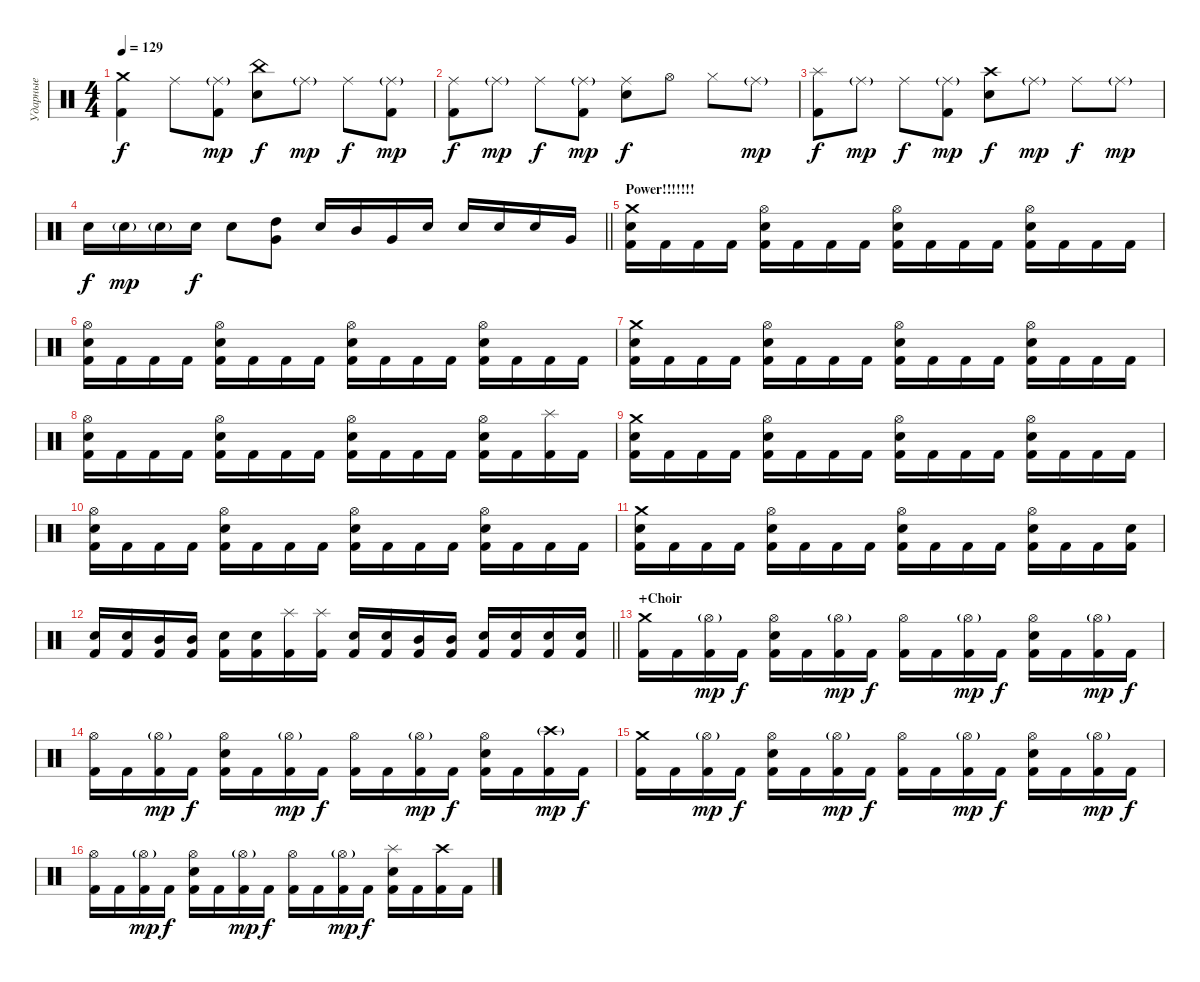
\track ("Ударные" "Ударные") {instrument percussion}
\staff
\articulation defaults
\ts (4 4)
\tempo 129
\clef neutral
\ks c
("Crash medium (hit)" "Kick (hit) 2").4{dy f} "Ride (middle)".8 ("Ride (middle)"{g} "Kick (hit) 2").8{dy mp} ("China (hit)" "Snare (hit) 2").8{dy f} "Ride (middle)"{g}.8{dy mp} "Ride (middle)".8{dy f} ("Ride (middle)"{g} "Kick (hit) 2").8{dy mp} |
("Ride (middle)" "Kick (hit) 2").8{dy f} "Ride (middle)"{g}.8{dy mp} "Ride (middle)".8{dy f} ("Ride (middle)"{g} "Kick (hit) 2").8{dy mp} ("Ride (middle)" "Snare (hit) 2").8{dy f} "Hi-Hat (open)".8 "Hi-Hat (closed)".8 "Ride (middle)"{g}.8{dy mp} |
("Splash (hit)" "Kick (hit) 2").8{dy f} "Ride (middle)"{g}.8{dy mp} "Ride (middle)".8{dy f} ("Ride (middle)"{g} "Kick (hit) 2").8{dy mp} ("Crash high (hit)" "Snare (hit) 2").8{dy f} "Ride (middle)"{g}.8{dy mp} "Ride (middle)".8{dy f} "Ride (middle)"{g}.8{dy mp} |
\barLineRight lightlight "Snare (hit) 2".16{dy f} "Snare (hit) 2"{g}.16{dy mp} "Snare (hit) 2"{g}.16 "Snare (hit) 2".16{dy f} "Snare (hit) 2".8
("High Tom (hit)" "Very Low Tom (hit)").8 "Snare (hit) 2".16 "Mid Tom (hit)".16 "Very Low Tom (hit)".16 "Snare (hit) 2".16 "Snare (hit) 2".16 "Snare (hit) 2".16 "Snare (hit) 2".16 "Very Low Tom (hit)".16 |
\section ("" "Power!!!!!!!")
("Crash medium (hit)" "Snare (hit) 2" "Kick (hit) 2").16 "Kick (hit) 2".16 "Kick (hit) 2".16 "Kick (hit) 2".16 ("Hi-Hat (open)" "Snare (hit) 2" "Kick (hit) 2").16 "Kick (hit) 2".16 "Kick (hit) 2".16 "Kick (hit) 2".16 ("Hi-Hat (open)" "Snare (hit) 2" "Kick (hit) 2").16 "Kick (hit) 2".16 "Kick (hit) 2".16 "Kick (hit) 2".16 ("Hi-Hat (open)" "Snare (hit) 2" "Kick (hit) 2").16 "Kick (hit) 2".16 "Kick (hit) 2".16 "Kick (hit) 2".16 |
("Hi-Hat (open)" "Snare (hit) 2" "Kick (hit) 2").16 "Kick (hit) 2".16 "Kick (hit) 2".16 "Kick (hit) 2".16 ("Hi-Hat (open)" "Snare (hit) 2" "Kick (hit) 2").16 "Kick (hit) 2".16 "Kick (hit) 2".16 "Kick (hit) 2".16 ("Hi-Hat (open)" "Snare (hit) 2" "Kick (hit) 2").16 "Kick (hit) 2".16 "Kick (hit) 2".16 "Kick (hit) 2".16 ("Hi-Hat (open)" "Snare (hit) 2" "Kick (hit) 2").16 "Kick (hit) 2".16 "Kick (hit) 2".16 "Kick (hit) 2".16 |
("Crash medium (hit)" "Snare (hit) 2" "Kick (hit) 2").16 "Kick (hit) 2".16 "Kick (hit) 2".16 "Kick (hit) 2".16 ("Hi-Hat (open)" "Snare (hit) 2" "Kick (hit) 2").16 "Kick (hit) 2".16 "Kick (hit) 2".16 "Kick (hit) 2".16 ("Hi-Hat (open)" "Snare (hit) 2" "Kick (hit) 2").16 "Kick (hit) 2".16 "Kick (hit) 2".16 "Kick (hit) 2".16 ("Hi-Hat (open)" "Snare (hit) 2" "Kick (hit) 2").16 "Kick (hit) 2".16 "Kick (hit) 2".16 "Kick (hit) 2".16 |
("Hi-Hat (open)" "Snare (hit) 2" "Kick (hit) 2").16 "Kick (hit) 2".16 "Kick (hit) 2".16 "Kick (hit) 2".16 ("Hi-Hat (open)" "Snare (hit) 2" "Kick (hit) 2").16 "Kick (hit) 2".16 "Kick (hit) 2".16 "Kick (hit) 2".16 ("Hi-Hat (open)" "Snare (hit) 2" "Kick (hit) 2").16 "Kick (hit) 2".16 "Kick (hit) 2".16 "Kick (hit) 2".16 ("Hi-Hat (open)" "Snare (hit) 2" "Kick (hit) 2").16 "Kick (hit) 2".16 ("Splash (hit)" "Kick (hit) 2").16 "Kick (hit) 2".16 |
("Crash medium (hit)" "Snare (hit) 2" "Kick (hit) 2").16 "Kick (hit) 2".16 "Kick (hit) 2".16 "Kick (hit) 2".16 ("Hi-Hat (open)" "Snare (hit) 2" "Kick (hit) 2").16 "Kick (hit) 2".16 "Kick (hit) 2".16 "Kick (hit) 2".16 ("Hi-Hat (open)" "Snare (hit) 2" "Kick (hit) 2").16 "Kick (hit) 2".16 "Kick (hit) 2".16 "Kick (hit) 2".16 ("Hi-Hat (open)" "Snare (hit) 2" "Kick (hit) 2").16 "Kick (hit) 2".16 "Kick (hit) 2".16 "Kick (hit) 2".16 |
("Hi-Hat (open)" "Snare (hit) 2" "Kick (hit) 2").16 "Kick (hit) 2".16 "Kick (hit) 2".16 "Kick (hit) 2".16 ("Hi-Hat (open)" "Snare (hit) 2" "Kick (hit) 2").16 "Kick (hit) 2".16 "Kick (hit) 2".16 "Kick (hit) 2".16 ("Hi-Hat (open)" "Snare (hit) 2" "Kick (hit) 2").16 "Kick (hit) 2".16 "Kick (hit) 2".16 "Kick (hit) 2".16 ("Hi-Hat (open)" "Snare (hit) 2" "Kick (hit) 2").16 "Kick (hit) 2".16 "Kick (hit) 2".16 "Kick (hit) 2".16 |
("Crash medium (hit)" "Snare (hit) 2" "Kick (hit) 2").16 "Kick (hit) 2".16 "Kick (hit) 2".16 "Kick (hit) 2".16 ("Hi-Hat (open)" "Snare (hit) 2" "Kick (hit) 2").16 "Kick (hit) 2".16 "Kick (hit) 2".16 "Kick (hit) 2".16 ("Hi-Hat (open)" "Snare (hit) 2" "Kick (hit) 2").16 "Kick (hit) 2".16 "Kick (hit) 2".16 "Kick (hit) 2".16 ("Hi-Hat (open)" "Snare (hit) 2" "Kick (hit) 2").16 "Kick (hit) 2".16 "Kick (hit) 2".16 ("Snare (hit) 2" "Kick (hit) 2").16 |
\barLineRight lightlight
("Snare (hit) 2" "Kick (hit) 2").16 ("Snare (hit) 2" "Kick (hit) 2").16 ("Mid Tom (hit)" "Kick (hit) 2").16 ("Mid Tom (hit)" "Kick (hit) 2").16 ("Snare (hit) 2" "Kick (hit) 2").16 ("Snare (hit) 2" "Kick (hit) 2").16 ("Splash (hit)" "Kick (hit) 2").16 ("Splash (hit)" "Kick (hit) 2").16 ("Snare (hit) 2" "Kick (hit) 2").16 ("Snare (hit) 2" "Kick (hit) 2").16 ("Mid Tom (hit)" "Kick (hit) 2").16 ("Mid Tom (hit)" "Kick (hit) 2").16 ("Snare (hit) 2" "Kick (hit) 2").16 ("Snare (hit) 2" "Kick (hit) 2").16 ("Snare (hit) 2" "Kick (hit) 2").16 ("Snare (hit) 2" "Kick (hit) 2").16 |
\section ("" "+Choir")
("Crash medium (hit)" "Kick (hit) 2").16 "Kick (hit) 2".16 ("Hi-Hat (open)"{g} "Kick (hit) 2").16{dy mp} "Kick (hit) 2".16{dy f} ("Hi-Hat (open)" "Snare (hit) 2" "Kick (hit) 2").16 "Kick (hit) 2".16 ("Hi-Hat (open)"{g} "Kick (hit) 2").16{dy mp} "Kick (hit) 2".16{dy f} ("Hi-Hat (open)" "Kick (hit) 2").16 "Kick (hit) 2".16 ("Hi-Hat (open)"{g} "Kick (hit) 2").16{dy mp} "Kick (hit) 2".16{dy f} ("Hi-Hat (open)" "Snare (hit) 2" "Kick (hit) 2").16 "Kick (hit) 2".16 ("Hi-Hat (open)"{g} "Kick (hit) 2").16{dy mp} "Kick (hit) 2".16{dy f} |
("Hi-Hat (open)" "Kick (hit) 2").16 "Kick (hit) 2".16 ("Hi-Hat (open)"{g} "Kick (hit) 2").16{dy mp} "Kick (hit) 2".16{dy f} ("Hi-Hat (open)" "Snare (hit) 2" "Kick (hit) 2").16 "Kick (hit) 2".16 ("Hi-Hat (open)"{g} "Kick (hit) 2").16{dy mp} "Kick (hit) 2".16{dy f} ("Hi-Hat (open)" "Kick (hit) 2").16 "Kick (hit) 2".16 ("Hi-Hat (open)"{g} "Kick (hit) 2").16{dy mp} "Kick (hit) 2".16{dy f} ("Hi-Hat (open)" "Snare (hit) 2" "Kick (hit) 2").16 "Kick (hit) 2".16 ("Crash high (hit)"{g} "Kick (hit) 2").16{dy mp} "Kick (hit) 2".16{dy f} |
("Crash medium (hit)" "Kick (hit) 2").16 "Kick (hit) 2".16 ("Hi-Hat (open)"{g} "Kick (hit) 2").16{dy mp} "Kick (hit) 2".16{dy f} ("Hi-Hat (open)" "Snare (hit) 2" "Kick (hit) 2").16 "Kick (hit) 2".16 ("Hi-Hat (open)"{g} "Kick (hit) 2").16{dy mp} "Kick (hit) 2".16{dy f} ("Hi-Hat (open)" "Kick (hit) 2").16 "Kick (hit) 2".16 ("Hi-Hat (open)"{g} "Kick (hit) 2").16{dy mp} "Kick (hit) 2".16{dy f} ("Hi-Hat (open)" "Snare (hit) 2" "Kick (hit) 2").16 "Kick (hit) 2".16 ("Hi-Hat (open)"{g} "Kick (hit) 2").16{dy mp} "Kick (hit) 2".16{dy f} |
("Hi-Hat (open)" "Kick (hit) 2").16 "Kick (hit) 2".16 ("Hi-Hat (open)"{g} "Kick (hit) 2").16{dy mp} "Kick (hit) 2".16{dy f} ("Hi-Hat (open)" "Snare (hit) 2" "Kick (hit) 2").16 "Kick (hit) 2".16 ("Hi-Hat (open)"{g} "Kick (hit) 2").16{dy mp} "Kick (hit) 2".16{dy f} ("Hi-Hat (open)" "Kick (hit) 2").16 "Kick (hit) 2".16 ("Hi-Hat (open)"{g} "Kick (hit) 2").16{dy mp} "Kick (hit) 2".16{dy f} ("Splash (hit)" "Snare (hit) 2" "Kick (hit) 2").16 "Kick (hit) 2".16 ("Crash high (hit)" "Kick (hit) 2").16 "Kick (hit) 2".16
